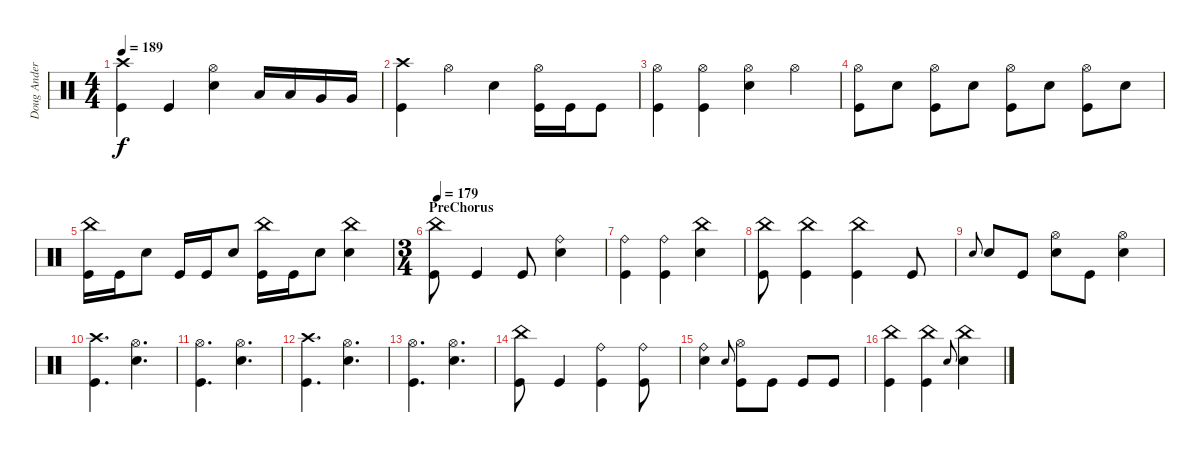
\track ("Doug Anderson" "Doug Ander") {instrument percussion}
\staff {score}
\articulation defaults
\ts (4 4)
\tempo 189
\clef neutral
\ks c
("Crash high (hit)" "Kick (hit)").4{dy f} "Kick (hit)".4 ("Snare (hit) 2" "Hi-Hat (open)").4 "Low Tom (hit)".16 "Low Tom (hit)".16 "Very Low Tom (hit)".16 "Very Low Tom (hit)".16 |
("Kick (hit)" "Crash high (hit)").4 "Hi-Hat (open)".4 "Snare (hit) 2".4 ("Hi-Hat (open)" "Kick (hit)").16 "Kick (hit)".16 "Kick (hit)".8 |
("Kick (hit)" "Hi-Hat (open)").4 ("Kick (hit)" "Hi-Hat (open)").4 ("Hi-Hat (open)" "Snare (hit) 2").4 "Hi-Hat (open)".4 |
("Kick (hit)" "Hi-Hat (open)").8 "Snare (hit) 2".8 ("Kick (hit)" "Hi-Hat (open)").8 "Snare (hit) 2".8 ("Kick (hit)" "Hi-Hat (open)").8 "Snare (hit) 2".8 ("Kick (hit)" "Hi-Hat (open)").8 "Snare (hit) 2".8 |
("Kick (hit)" "China (hit)").16 "Kick (hit)".16 "Snare (hit) 2".8 "Kick (hit)".16 "Kick (hit)".16 "Snare (hit) 2".8 ("Kick (hit)" "China (hit)").16 "Kick (hit)".16 "Snare (hit) 2".8 ("Snare (hit) 2" "China (hit)").4 |
\ts (3 4)
\section ("" "PreChorus")
\tempo 179
("Kick (hit)" "China (hit)").8 "Kick (hit)".4 "Kick (hit)".8 ("Snare (hit) 2" "Ride (bell)").4 |
("Kick (hit)" "Ride (bell)").4 ("Kick (hit)" "Ride (bell)").4 ("Snare (hit) 2" "China (hit)").4 |
("Kick (hit)" "China (hit)").8 ("Kick (hit)" "China (hit)").4 ("Kick (hit)" "China (hit)").4 "Kick (hit)".8 |
"Snare (hit)".8{gr onbeat} "Snare (hit) 2".8 "Kick (hit)".8 ("Snare (hit) 2" "Hi-Hat (open)").8 "Kick (hit)".8 ("Snare (hit) 2" "Hi-Hat (open)").4 |
("Kick (hit)" "Crash high (hit)").4{d} ("Snare (hit) 2" "Hi-Hat (open)").4{d} |
("Kick (hit)" "Hi-Hat (open)").4{d} ("Snare (hit) 2" "Hi-Hat (open)").4{d} |
("Kick (hit)" "Crash high (hit)").4{d} ("Snare (hit) 2" "Hi-Hat (open)").4{d} |
("Kick (hit)" "Hi-Hat (open)").4{d} ("Snare (hit) 2" "Hi-Hat (open)").4{d} |
("Kick (hit)" "China (hit)").8 "Kick (hit)".4 ("Kick (hit)" "Ride (bell)").4 ("Kick (hit)" "Ride (bell)").8 |
("Snare (hit) 2" "Ride (bell)").4 "Snare (hit)".8{gr onbeat} ("Kick (hit)" "Hi-Hat (open)").8 "Kick (hit)".8 "Kick (hit)".8 "Kick (hit)".8 |
("Kick (hit)" "China (hit)").4 ("Kick (hit)" "China (hit)").4 "Snare (hit)".8{gr onbeat} ("Snare (hit) 2" "China (hit)").4
